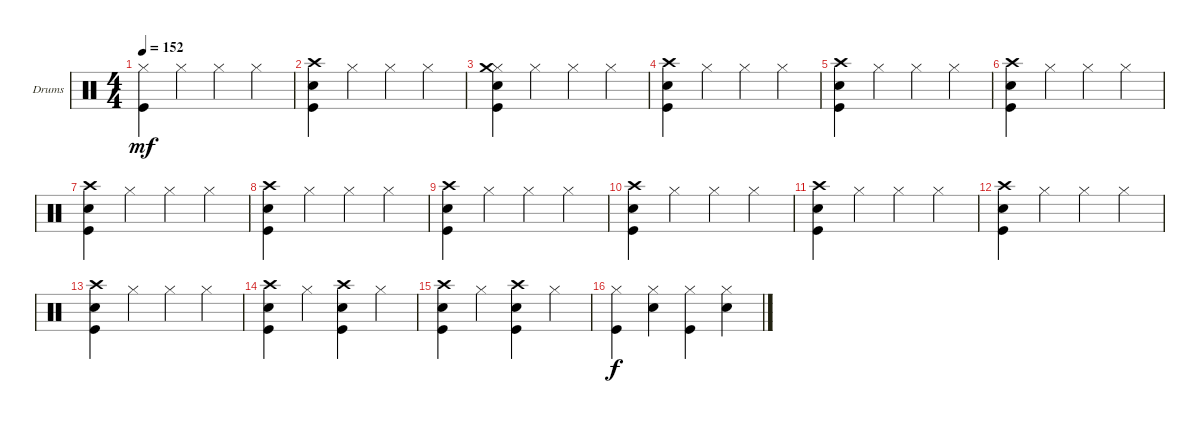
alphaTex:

\bracketExtendMode groupsimilarinstruments
\firstSystemTrackNameOrientation horizontal
\otherSystemsTrackNameOrientation horizontal
\track ("Drumkit" "Drums") {instrument percussion}
\staff {score}
\articulation defaults
\ts (4 4)
\tempo 152
\clef neutral
\scale
0.333333
\ks c
("Hi-Hat (closed)" "Kick (hit)").4{dy mf} "Hi-Hat (closed)".4 "Hi-Hat (closed)".4 "Hi-Hat (closed)".4 |
\scale
0.333333 ("Kick (hit)" "Snare (hit) 2" "Crash high (hit)").4 "Hi-Hat (closed)".4 "Hi-Hat (closed)".4 "Hi-Hat (closed)".4 |
\scale
0.333333 ("Kick (hit)" "Snare (hit) 2" "Hi-Hat (closed)" "Crash medium (hit)").4 "Hi-Hat (closed)".4 "Hi-Hat (closed)".4 "Hi-Hat (closed)".4 |
\scale
0.333333 ("Kick (hit)" "Snare (hit) 2" "Crash high (hit)").4 "Hi-Hat (closed)".4 "Hi-Hat (closed)".4 "Hi-Hat (closed)".4 |
\scale
0.333333 ("Kick (hit)" "Snare (hit) 2" "Crash high (hit)").4 "Hi-Hat (closed)".4 "Hi-Hat (closed)".4 "Hi-Hat (closed)".4 |
\scale
0.333333 ("Kick (hit)" "Snare (hit) 2" "Crash high (hit)").4 "Hi-Hat (closed)".4 "Hi-Hat (closed)".4 "Hi-Hat (closed)".4 |
\scale
0.333333 ("Kick (hit)" "Snare (hit) 2" "Crash high (hit)").4 "Hi-Hat (closed)".4 "Hi-Hat (closed)".4 "Hi-Hat (closed)".4 |
\scale
0.333333 ("Kick (hit)" "Snare (hit) 2" "Crash high (hit)").4 "Hi-Hat (closed)".4 "Hi-Hat (closed)".4 "Hi-Hat (closed)".4 |
\scale
0.333333 ("Kick (hit)" "Snare (hit) 2" "Crash high (hit)").4 "Hi-Hat (closed)".4 "Hi-Hat (closed)".4 "Hi-Hat (closed)".4 |
\scale
0.333333 ("Kick (hit)" "Snare (hit) 2" "Crash high (hit)").4 "Hi-Hat (closed)".4 "Hi-Hat (closed)".4 "Hi-Hat (closed)".4 |
\scale
0.333333 ("Kick (hit)" "Snare (hit) 2" "Crash high (hit)").4 "Hi-Hat (closed)".4 "Hi-Hat (closed)".4 "Hi-Hat (closed)".4 |
\scale
0.333333 ("Kick (hit)" "Snare (hit) 2" "Crash high (hit)").4 "Hi-Hat (closed)".4 "Hi-Hat (closed)".4 "Hi-Hat (closed)".4 |
\scale
0.333333 ("Kick (hit)" "Snare (hit) 2" "Crash high (hit)").4 "Hi-Hat (closed)".4 "Hi-Hat (closed)".4 "Hi-Hat (closed)".4 |
\scale
0.333333 ("Kick (hit)" "Snare (hit) 2" "Crash high (hit)").4 "Hi-Hat (closed)".4 ("Kick (hit)" "Snare (hit) 2" "Crash high (hit)").4 "Hi-Hat (closed)".4 |
\scale
0.333333 ("Kick (hit)" "Snare (hit) 2" "Crash high (hit)").4 "Hi-Hat (closed)".4 ("Kick (hit)" "Snare (hit) 2" "Crash high (hit)").4 "Hi-Hat (closed)".4 |
\scale
0.333333 ("Hi-Hat (closed)" "Kick (hit)").4{dy f} ("Snare (hit) 2" "Hi-Hat (closed)").4 ("Kick (hit)" "Hi-Hat (closed)").4 ("Snare (hit) 2" "Hi-Hat (closed)").4
